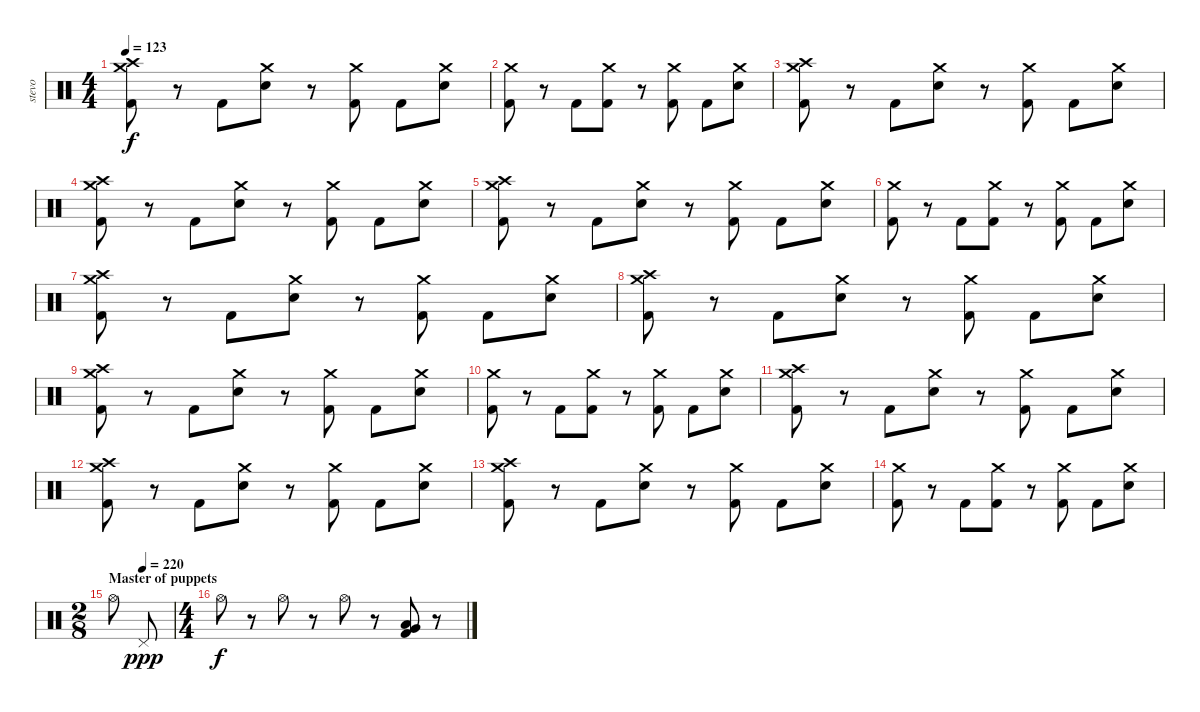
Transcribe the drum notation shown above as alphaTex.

\track ("stevo" "stevo") {instrument percussion}
\staff {score}
\articulation defaults
\ts (4 4)
\tempo 123
\clef neutral
\ks c
("Crash high (hit)" "Crash medium (hit)" "Kick (hit) 2").8{dy f} r.8 "Kick (hit) 2".8 ("Crash medium (hit)" "Electric Snare (hit)").8 r.8 ("Crash medium (hit)" "Kick (hit) 2").8 "Kick (hit) 2".8 ("Crash medium (hit)" "Electric Snare (hit)").8 |
("Crash medium (hit)" "Kick (hit) 2").8 r.8 "Kick (hit) 2".8 ("Crash medium (hit)" "Kick (hit) 2").8 r.8 ("Crash medium (hit)" "Kick (hit) 2").8 "Kick (hit) 2".8 ("Crash medium (hit)" "Electric Snare (hit)").8 |
("Crash high (hit)" "Crash medium (hit)" "Kick (hit) 2").8 r.8 "Kick (hit) 2".8 ("Crash medium (hit)" "Electric Snare (hit)").8 r.8 ("Crash medium (hit)" "Kick (hit) 2").8 "Kick (hit) 2".8 ("Crash medium (hit)" "Electric Snare (hit)").8 |
("Crash high (hit)" "Crash medium (hit)" "Kick (hit) 2").8 r.8 "Kick (hit) 2".8 ("Crash medium (hit)" "Electric Snare (hit)").8 r.8 ("Crash medium (hit)" "Kick (hit) 2").8 "Kick (hit) 2".8 ("Crash medium (hit)" "Electric Snare (hit)").8 |
("Crash high (hit)" "Crash medium (hit)" "Kick (hit) 2").8 r.8 "Kick (hit) 2".8 ("Crash medium (hit)" "Electric Snare (hit)").8 r.8 ("Crash medium (hit)" "Kick (hit) 2").8 "Kick (hit) 2".8 ("Crash medium (hit)" "Electric Snare (hit)").8 |
("Crash medium (hit)" "Kick (hit) 2").8 r.8 "Kick (hit) 2".8 ("Crash medium (hit)" "Kick (hit) 2").8 r.8 ("Crash medium (hit)" "Kick (hit) 2").8 "Kick (hit) 2".8 ("Crash medium (hit)" "Electric Snare (hit)").8 |
("Crash high (hit)" "Crash medium (hit)" "Kick (hit) 2").8 r.8 "Kick (hit) 2".8 ("Crash medium (hit)" "Electric Snare (hit)").8 r.8 ("Crash medium (hit)" "Kick (hit) 2").8 "Kick (hit) 2".8 ("Crash medium (hit)" "Electric Snare (hit)").8 |
("Crash high (hit)" "Crash medium (hit)" "Kick (hit) 2").8 r.8 "Kick (hit) 2".8 ("Crash medium (hit)" "Electric Snare (hit)").8 r.8 ("Crash medium (hit)" "Kick (hit) 2").8 "Kick (hit) 2".8 ("Crash medium (hit)" "Electric Snare (hit)").8 |
("Crash high (hit)" "Crash medium (hit)" "Kick (hit) 2").8 r.8 "Kick (hit) 2".8 ("Crash medium (hit)" "Electric Snare (hit)").8 r.8 ("Crash medium (hit)" "Kick (hit) 2").8 "Kick (hit) 2".8 ("Crash medium (hit)" "Electric Snare (hit)").8 |
("Crash medium (hit)" "Kick (hit) 2").8 r.8 "Kick (hit) 2".8 ("Crash medium (hit)" "Kick (hit) 2").8 r.8 ("Crash medium (hit)" "Kick (hit) 2").8 "Kick (hit) 2".8 ("Crash medium (hit)" "Electric Snare (hit)").8 |
("Crash high (hit)" "Crash medium (hit)" "Kick (hit) 2").8 r.8 "Kick (hit) 2".8 ("Crash medium (hit)" "Electric Snare (hit)").8 r.8 ("Crash medium (hit)" "Kick (hit) 2").8 "Kick (hit) 2".8 ("Crash medium (hit)" "Electric Snare (hit)").8 |
("Crash high (hit)" "Crash medium (hit)" "Kick (hit) 2").8 r.8 "Kick (hit) 2".8 ("Crash medium (hit)" "Electric Snare (hit)").8 r.8 ("Crash medium (hit)" "Kick (hit) 2").8 "Kick (hit) 2".8 ("Crash medium (hit)" "Electric Snare (hit)").8 |
("Crash high (hit)" "Crash medium (hit)" "Kick (hit) 2").8 r.8 "Kick (hit) 2".8 ("Crash medium (hit)" "Electric Snare (hit)").8 r.8 ("Crash medium (hit)" "Kick (hit) 2").8 "Kick (hit) 2".8 ("Crash medium (hit)" "Electric Snare (hit)").8 |
("Crash medium (hit)" "Kick (hit) 2").8 r.8 "Kick (hit) 2".8 ("Crash medium (hit)" "Kick (hit) 2").8 r.8 ("Crash medium (hit)" "Kick (hit) 2").8 "Kick (hit) 2".8 ("Crash medium (hit)" "Electric Snare (hit)").8 |
\ts (2 8)
\section ("" "Master of puppets")
\tempo (220 0.5)
"Hi-Hat (open)".8 "Pedal Hi-Hat (hit)".8{dy ppp} |
\ts (4 4)
"Hi-Hat (open)".8{dy f} r.8 "Hi-Hat (open)".8 r.8 "Hi-Hat (open)".8 r.8 ("Kick (hit) 2" "Low Floor Tom (hit)" "Very Low Tom (hit)").8 r.8
